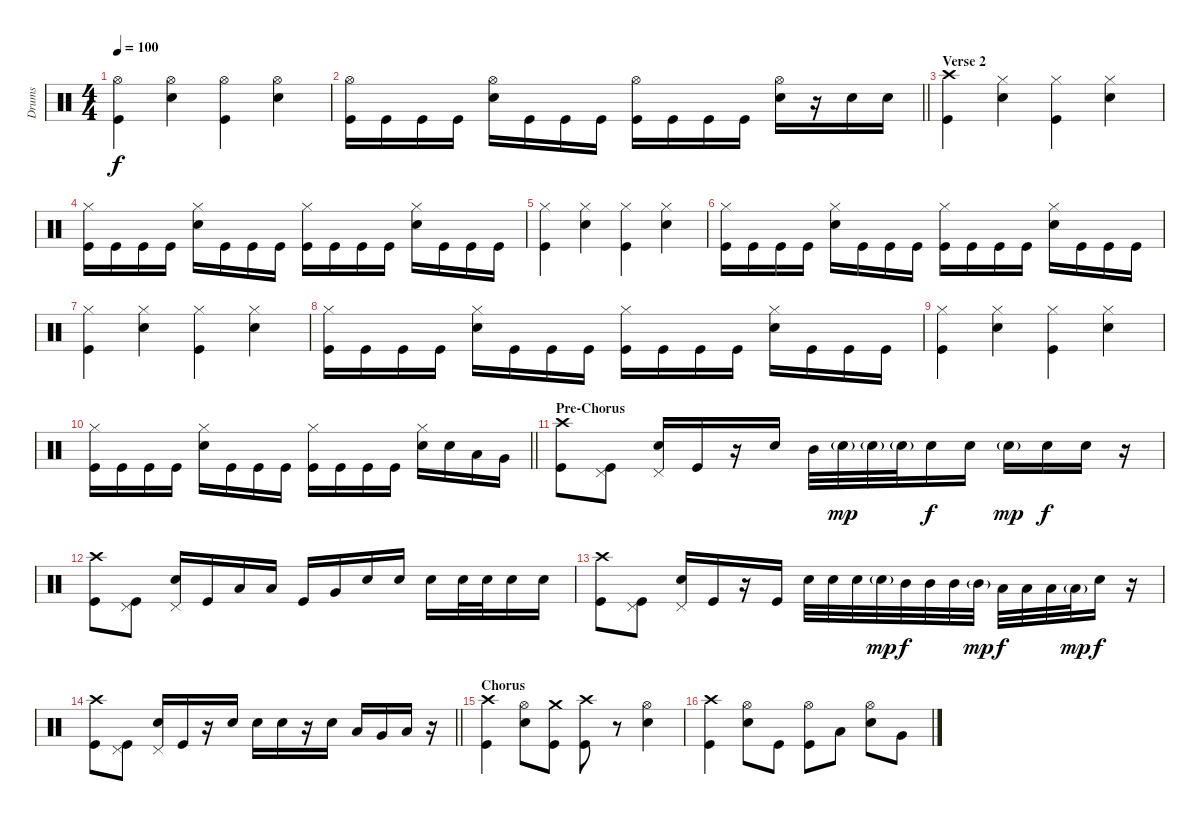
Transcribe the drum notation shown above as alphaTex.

\track ("Drums" "Drums") {instrument percussion}
\staff {score}
\articulation defaults
\ts (4 4)
\tempo 100
\clef neutral
\ks c
("Hi-Hat (open)" "Kick (hit)").4{dy f} ("Hi-Hat (open)" "Electric Snare (hit)").4 ("Hi-Hat (open)" "Kick (hit)").4 ("Hi-Hat (open)" "Electric Snare (hit)").4 |
\barLineRight lightlight
("Hi-Hat (open)" "Kick (hit)").16 "Kick (hit)".16 "Kick (hit)".16 "Kick (hit)".16 ("Hi-Hat (open)" "Electric Snare (hit)").16 "Kick (hit)".16 "Kick (hit)".16 "Kick (hit)".16 ("Hi-Hat (open)" "Kick (hit)").16 "Kick (hit)".16 "Kick (hit)".16 "Kick (hit)".16 ("Hi-Hat (open)" "Electric Snare (hit)").16 r.16 "Electric Snare (hit)".16 "Electric Snare (hit)".16 |
\section ("" "Verse 2")
("Crash high (hit)" "Kick (hit)").4 ("Hi-Hat (closed)" "Electric Snare (hit)").4 ("Hi-Hat (closed)" "Kick (hit)").4 ("Hi-Hat (closed)" "Electric Snare (hit)").4 |
("Hi-Hat (closed)" "Kick (hit)").16 "Kick (hit)".16 "Kick (hit)".16 "Kick (hit)".16 ("Hi-Hat (closed)" "Electric Snare (hit)").16 "Kick (hit)".16 "Kick (hit)".16 "Kick (hit)".16 ("Hi-Hat (closed)" "Kick (hit)").16 "Kick (hit)".16 "Kick (hit)".16 "Kick (hit)".16 ("Hi-Hat (closed)" "Electric Snare (hit)").16 "Kick (hit)".16 "Kick (hit)".16 "Kick (hit)".16 |
("Hi-Hat (closed)" "Kick (hit)").4 ("Hi-Hat (closed)" "Electric Snare (hit)").4 ("Hi-Hat (closed)" "Kick (hit)").4 ("Hi-Hat (closed)" "Electric Snare (hit)").4 |
("Hi-Hat (closed)" "Kick (hit)").16 "Kick (hit)".16 "Kick (hit)".16 "Kick (hit)".16 ("Hi-Hat (closed)" "Electric Snare (hit)").16 "Kick (hit)".16 "Kick (hit)".16 "Kick (hit)".16 ("Hi-Hat (closed)" "Kick (hit)").16 "Kick (hit)".16 "Kick (hit)".16 "Kick (hit)".16 ("Hi-Hat (closed)" "Electric Snare (hit)").16 "Kick (hit)".16 "Kick (hit)".16 "Kick (hit)".16 |
("Hi-Hat (closed)" "Kick (hit)").4 ("Hi-Hat (closed)" "Electric Snare (hit)").4 ("Hi-Hat (closed)" "Kick (hit)").4 ("Hi-Hat (closed)" "Electric Snare (hit)").4 |
("Hi-Hat (closed)" "Kick (hit)").16 "Kick (hit)".16 "Kick (hit)".16 "Kick (hit)".16 ("Hi-Hat (closed)" "Electric Snare (hit)").16 "Kick (hit)".16 "Kick (hit)".16 "Kick (hit)".16 ("Hi-Hat (closed)" "Kick (hit)").16 "Kick (hit)".16 "Kick (hit)".16 "Kick (hit)".16 ("Hi-Hat (closed)" "Electric Snare (hit)").16 "Kick (hit)".16 "Kick (hit)".16 "Kick (hit)".16 |
("Hi-Hat (closed)" "Kick (hit)").4 ("Hi-Hat (closed)" "Electric Snare (hit)").4 ("Hi-Hat (closed)" "Kick (hit)").4 ("Hi-Hat (closed)" "Electric Snare (hit)").4 |
\barLineRight lightlight
("Hi-Hat (closed)" "Kick (hit)").16 "Kick (hit)".16 "Kick (hit)".16 "Kick (hit)".16 ("Hi-Hat (closed)" "Electric Snare (hit)").16 "Kick (hit)".16 "Kick (hit)".16 "Kick (hit)".16 ("Hi-Hat (closed)" "Kick (hit)").16 "Kick (hit)".16 "Kick (hit)".16 "Kick (hit)".16 ("Hi-Hat (closed)" "Electric Snare (hit)").16 "Electric Snare (hit)".16 "Low Tom (hit)".16 "Very Low Tom (hit)".16 |
\section ("" "Pre-Chorus")
("Crash high (hit)" "Kick (hit)").8 ("Pedal Hi-Hat (hit)" "Kick (hit)").8 ("Pedal Hi-Hat (hit)" "Electric Snare (hit)").16 "Kick (hit)".16 r.16 "Electric Snare (hit)".16 "Mid Tom (hit)".32 "Electric Snare (hit)"{g}.32{dy mp} "Electric Snare (hit)"{g}.32 "Electric Snare (hit)"{g}.32 "Snare (hit) 2".16{dy f} "Snare (hit) 2".16 "Electric Snare (hit)"{g}.16{dy mp} "Electric Snare (hit)".16{dy f} "Snare (hit) 2".16 r.16 |
("Crash high (hit)" "Kick (hit)").8 ("Pedal Hi-Hat (hit)" "Kick (hit)").8 ("Pedal Hi-Hat (hit)" "Electric Snare (hit)").16 "Kick (hit)".16 "Low Floor Tom (hit)".16 "Low Floor Tom (hit)".16 "Kick (hit)".16 "Very Low Tom (hit)".16 "Snare (hit) 2".16 "Snare (hit) 2".16 "Snare (hit) 2".16 "Snare (hit) 2".32 "Snare (hit) 2".32 "Snare (hit) 2".16 "Snare (hit) 2".16 |
("Crash high (hit)" "Kick (hit)").8 ("Pedal Hi-Hat (hit)" "Kick (hit)").8 ("Pedal Hi-Hat (hit)" "Electric Snare (hit)").16 "Kick (hit)".16 r.16 "Kick (hit)".16 "Electric Snare (hit)".32 "Electric Snare (hit)".32 "Electric Snare (hit)".32 "Electric Snare (hit)"{g}.32{dy mp} "Mid Tom (hit)".32{dy f} "Mid Tom (hit)".32 "Mid Tom (hit)".32 "Mid Tom (hit)"{g}.32{dy mp} "Low Tom (hit)".32{dy f} "Low Tom (hit)".32 "Low Tom (hit)".32 "Low Tom (hit)"{g}.32{dy mp} "Electric Snare (hit)".16{dy f} r.16 |
\barLineRight lightlight
("Crash high (hit)" "Kick (hit)").8 ("Pedal Hi-Hat (hit)" "Kick (hit)").8 ("Pedal Hi-Hat (hit)" "Electric Snare (hit)").16 "Kick (hit)".16 r.16 "Electric Snare (hit)".16 "Electric Snare (hit)".16 "Electric Snare (hit)".16 r.16 "Electric Snare (hit)".16 "Low Tom (hit)".16 "Very Low Tom (hit)".16 "Low Floor Tom (hit)".16 r.16 |
\section ("" "Chorus")
("Crash high (hit)" "Kick (hit)").4 ("Hi-Hat (open)" "Electric Snare (hit)").8 ("Crash medium (hit)" "Kick (hit)").8 ("Crash high (hit)" "Kick (hit)").8 r.8 ("Hi-Hat (open)" "Electric Snare (hit)").4 |
("Crash high (hit)" "Kick (hit)").4 ("Hi-Hat (open)" "Electric Snare (hit)").8 "Kick (hit)".8 ("Hi-Hat (open)" "Kick (hit)").8 "Low Tom (hit)".8 ("Hi-Hat (open)" "Electric Snare (hit)").8 "Very Low Tom (hit)".8
